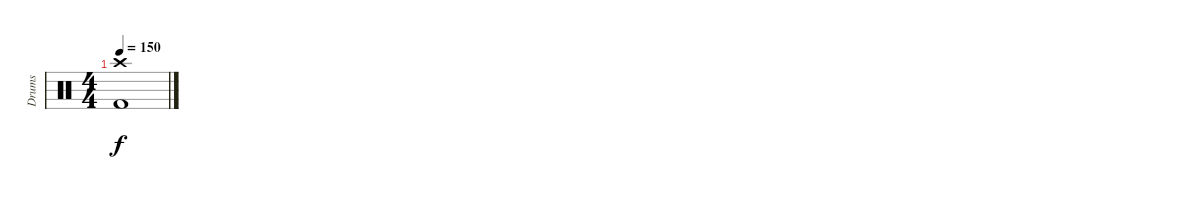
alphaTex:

\track ("Drums" "Drums") {instrument percussion}
\staff {score}
\articulation defaults
\ts (4 4)
\tempo 150
\clef neutral
\ks c
("Kick (hit) 2" "Crash high (hit)").1{dy f}
